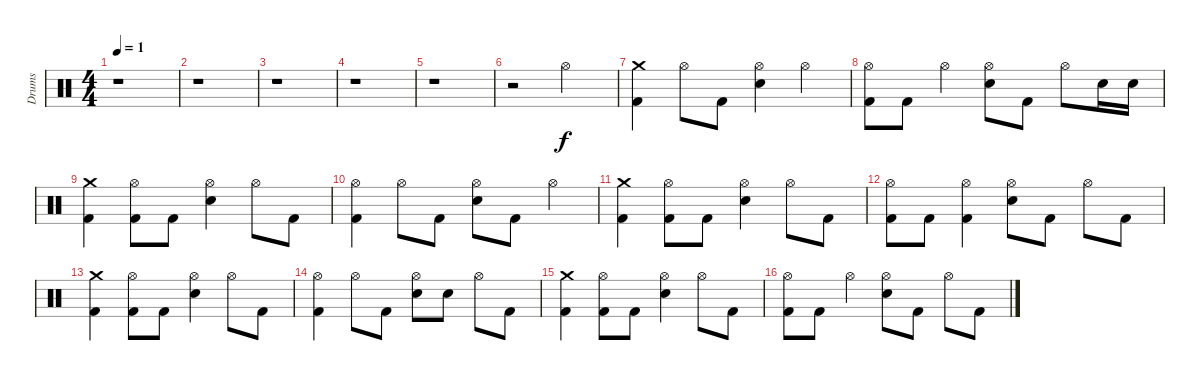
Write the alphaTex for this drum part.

\track ("Drums" "Drums") {instrument percussion}
\staff {score}
\articulation defaults
\ts (4 4)
\tempo 1
\clef neutral
\ks c
r.1{dy f} |
r.1 |
r.1 |
r.1 |
r.1 |
r.2 "Hi-Hat (open)".2 |
("Kick (hit) 2" "Crash medium (hit)").4 "Hi-Hat (open)".8 "Kick (hit) 2".8 ("Snare (hit) 2" "Hi-Hat (open)").4 "Hi-Hat (open)".4 |
("Kick (hit) 2" "Hi-Hat (open)").8 "Kick (hit) 2".8 "Hi-Hat (open)".4 ("Snare (hit) 2" "Hi-Hat (open)").8 "Kick (hit) 2".8 "Hi-Hat (open)".8 "Snare (hit) 2".16 "Snare (hit) 2".16 |
("Kick (hit) 2" "Crash medium (hit)").4 ("Hi-Hat (open)" "Kick (hit) 2").8 "Kick (hit) 2".8 ("Snare (hit) 2" "Hi-Hat (open)").4 "Hi-Hat (open)".8 "Kick (hit) 2".8 |
("Hi-Hat (open)" "Kick (hit) 2").4 "Hi-Hat (open)".8 "Kick (hit) 2".8 ("Snare (hit) 2" "Hi-Hat (open)").8 "Kick (hit) 2".8 "Hi-Hat (open)".4 |
("Kick (hit) 2" "Crash medium (hit)").4 ("Hi-Hat (open)" "Kick (hit) 2").8 "Kick (hit) 2".8 ("Snare (hit) 2" "Hi-Hat (open)").4 "Hi-Hat (open)".8 "Kick (hit) 2".8 |
("Kick (hit) 2" "Hi-Hat (open)").8 "Kick (hit) 2".8 ("Hi-Hat (open)" "Kick (hit) 2").4 ("Snare (hit) 2" "Hi-Hat (open)").8 "Kick (hit) 2".8 "Hi-Hat (open)".8 "Kick (hit) 2".8 |
("Kick (hit) 2" "Crash medium (hit)").4 ("Hi-Hat (open)" "Kick (hit) 2").8 "Kick (hit) 2".8 ("Snare (hit) 2" "Hi-Hat (open)").4 "Hi-Hat (open)".8 "Kick (hit) 2".8 |
("Hi-Hat (open)" "Kick (hit) 2").4 "Hi-Hat (open)".8 "Kick (hit) 2".8 ("Snare (hit) 2" "Hi-Hat (open)").8 "Snare (hit) 2".8 "Hi-Hat (open)".8 "Kick (hit) 2".8 |
("Kick (hit) 2" "Crash medium (hit)").4 ("Hi-Hat (open)" "Kick (hit) 2").8 "Kick (hit) 2".8 ("Snare (hit) 2" "Hi-Hat (open)").4 "Hi-Hat (open)".8 "Kick (hit) 2".8 |
("Kick (hit) 2" "Hi-Hat (open)").8 "Kick (hit) 2".8 "Hi-Hat (open)".4 ("Snare (hit) 2" "Hi-Hat (open)").8 "Kick (hit) 2".8 "Hi-Hat (open)".8 "Kick (hit) 2".8
